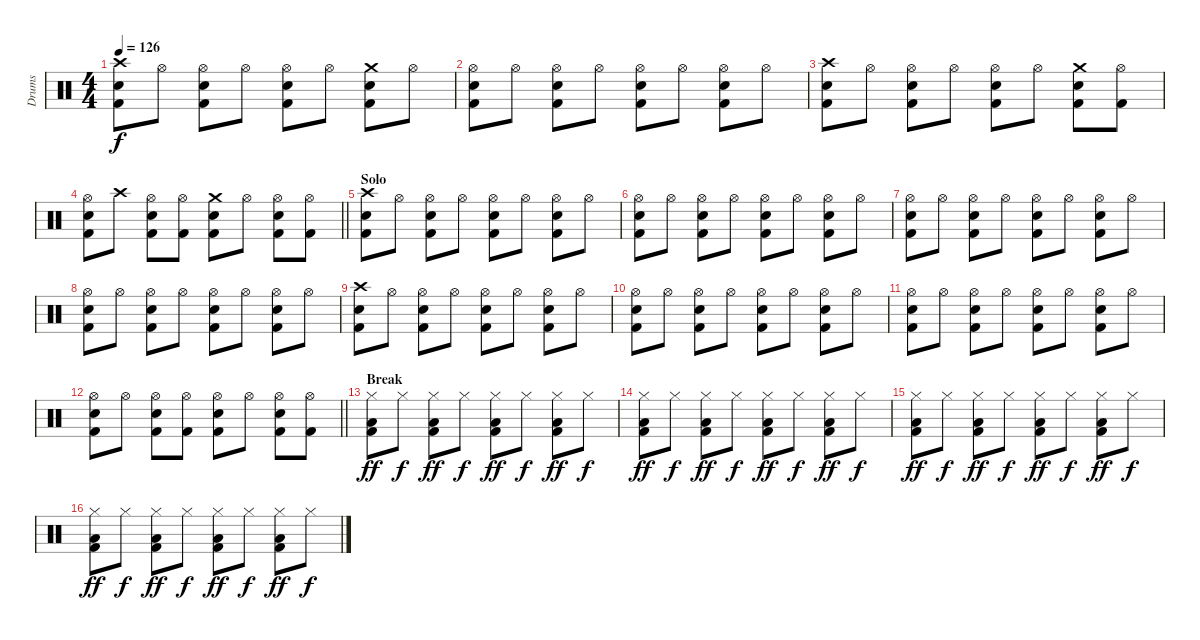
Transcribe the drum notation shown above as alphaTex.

\track ("Drums" "Drums") {instrument percussion}
\staff {score}
\articulation defaults
\ts (4 4)
\tempo 126
\clef neutral
\ks c
("Crash high (hit)" "Kick (hit) 2" "Electric Snare (hit)").8{dy f} "Hi-Hat (open)".8 ("Hi-Hat (open)" "Kick (hit) 2" "Electric Snare (hit)").8 "Hi-Hat (open)".8 ("Hi-Hat (open)" "Kick (hit) 2" "Electric Snare (hit)").8 "Hi-Hat (open)".8 ("Crash medium (hit)" "Kick (hit) 2" "Electric Snare (hit)").8 "Hi-Hat (open)".8 |
("Hi-Hat (open)" "Kick (hit) 2" "Electric Snare (hit)").8 "Hi-Hat (open)".8 ("Hi-Hat (open)" "Kick (hit) 2" "Electric Snare (hit)").8 "Hi-Hat (open)".8 ("Hi-Hat (open)" "Kick (hit) 2" "Electric Snare (hit)").8 "Hi-Hat (open)".8 ("Hi-Hat (open)" "Kick (hit) 2" "Electric Snare (hit)").8 "Hi-Hat (open)".8 |
("Crash high (hit)" "Kick (hit) 2" "Electric Snare (hit)").8 "Hi-Hat (open)".8 ("Hi-Hat (open)" "Kick (hit) 2" "Electric Snare (hit)").8 "Hi-Hat (open)".8 ("Hi-Hat (open)" "Kick (hit) 2" "Electric Snare (hit)").8 "Hi-Hat (open)".8 ("Crash medium (hit)" "Kick (hit) 2" "Electric Snare (hit)").8 ("Hi-Hat (open)" "Kick (hit) 2").8 |
\barLineRight lightlight
("Hi-Hat (open)" "Kick (hit) 2" "Electric Snare (hit)").8 "Crash high (hit)".8 ("Hi-Hat (open)" "Kick (hit) 2" "Electric Snare (hit)").8 ("Hi-Hat (open)" "Kick (hit) 2").8 ("Crash medium (hit)" "Kick (hit) 2" "Electric Snare (hit)").8 "Hi-Hat (open)".8 ("Hi-Hat (open)" "Kick (hit) 2" "Electric Snare (hit)").8 ("Hi-Hat (open)" "Kick (hit) 2").8 |
\section ("" "Solo")
("Crash high (hit)" "Kick (hit) 2" "Electric Snare (hit)").8 "Hi-Hat (open)".8 ("Hi-Hat (open)" "Kick (hit) 2" "Electric Snare (hit)").8 "Hi-Hat (open)".8 ("Hi-Hat (open)" "Kick (hit) 2" "Electric Snare (hit)").8 "Hi-Hat (open)".8 ("Hi-Hat (open)" "Kick (hit) 2" "Electric Snare (hit)").8 "Hi-Hat (open)".8 |
("Hi-Hat (open)" "Kick (hit) 2" "Electric Snare (hit)").8 "Hi-Hat (open)".8 ("Hi-Hat (open)" "Kick (hit) 2" "Electric Snare (hit)").8 "Hi-Hat (open)".8 ("Hi-Hat (open)" "Kick (hit) 2" "Electric Snare (hit)").8 "Hi-Hat (open)".8 ("Hi-Hat (open)" "Kick (hit) 2" "Electric Snare (hit)").8 "Hi-Hat (open)".8 |
("Hi-Hat (open)" "Kick (hit) 2" "Electric Snare (hit)").8 "Hi-Hat (open)".8 ("Hi-Hat (open)" "Kick (hit) 2" "Electric Snare (hit)").8 "Hi-Hat (open)".8 ("Hi-Hat (open)" "Kick (hit) 2" "Electric Snare (hit)").8 "Hi-Hat (open)".8 ("Hi-Hat (open)" "Kick (hit) 2" "Electric Snare (hit)").8 "Hi-Hat (open)".8 |
("Hi-Hat (open)" "Kick (hit) 2" "Electric Snare (hit)").8 "Hi-Hat (open)".8 ("Hi-Hat (open)" "Kick (hit) 2" "Electric Snare (hit)").8 "Hi-Hat (open)".8 ("Hi-Hat (open)" "Kick (hit) 2" "Electric Snare (hit)").8 "Hi-Hat (open)".8 ("Hi-Hat (open)" "Kick (hit) 2" "Electric Snare (hit)").8 "Hi-Hat (open)".8 |
("Crash high (hit)" "Kick (hit) 2" "Electric Snare (hit)").8 "Hi-Hat (open)".8 ("Hi-Hat (open)" "Kick (hit) 2" "Electric Snare (hit)").8 "Hi-Hat (open)".8 ("Hi-Hat (open)" "Kick (hit) 2" "Electric Snare (hit)").8 "Hi-Hat (open)".8 ("Hi-Hat (open)" "Kick (hit) 2" "Electric Snare (hit)").8 "Hi-Hat (open)".8 |
("Hi-Hat (open)" "Kick (hit) 2" "Electric Snare (hit)").8 "Hi-Hat (open)".8 ("Hi-Hat (open)" "Kick (hit) 2" "Electric Snare (hit)").8 "Hi-Hat (open)".8 ("Hi-Hat (open)" "Kick (hit) 2" "Electric Snare (hit)").8 "Hi-Hat (open)".8 ("Hi-Hat (open)" "Kick (hit) 2" "Electric Snare (hit)").8 "Hi-Hat (open)".8 |
("Hi-Hat (open)" "Kick (hit) 2" "Electric Snare (hit)").8 "Hi-Hat (open)".8 ("Hi-Hat (open)" "Kick (hit) 2" "Electric Snare (hit)").8 "Hi-Hat (open)".8 ("Hi-Hat (open)" "Kick (hit) 2" "Electric Snare (hit)").8 "Hi-Hat (open)".8 ("Hi-Hat (open)" "Kick (hit) 2" "Electric Snare (hit)").8 "Hi-Hat (open)".8 |
\barLineRight lightlight
("Hi-Hat (open)" "Kick (hit) 2" "Electric Snare (hit)").8 "Hi-Hat (open)".8 ("Hi-Hat (open)" "Kick (hit) 2" "Electric Snare (hit)").8 ("Hi-Hat (open)" "Kick (hit) 2").8 ("Hi-Hat (open)" "Kick (hit) 2" "Electric Snare (hit)").8 "Hi-Hat (open)".8 ("Hi-Hat (open)" "Kick (hit) 2" "Electric Snare (hit)").8 ("Hi-Hat (open)" "Kick (hit) 2").8 |
\section ("" "Break")
("Hi-Hat (closed)" "Kick (hit) 2" "Low Tom (hit)").8{dy ff} "Hi-Hat (closed)".8{dy f} ("Hi-Hat (closed)" "Kick (hit) 2" "Low Tom (hit)").8{dy ff} "Hi-Hat (closed)".8{dy f} ("Hi-Hat (closed)" "Kick (hit) 2" "Low Tom (hit)").8{dy ff} "Hi-Hat (closed)".8{dy f} ("Hi-Hat (closed)" "Kick (hit) 2" "Low Tom (hit)").8{dy ff} "Hi-Hat (closed)".8{dy f} |
("Hi-Hat (closed)" "Kick (hit) 2" "Low Tom (hit)").8{dy ff} "Hi-Hat (closed)".8{dy f} ("Hi-Hat (closed)" "Kick (hit) 2" "Low Tom (hit)").8{dy ff} "Hi-Hat (closed)".8{dy f} ("Hi-Hat (closed)" "Kick (hit) 2" "Low Tom (hit)").8{dy ff} "Hi-Hat (closed)".8{dy f} ("Hi-Hat (closed)" "Kick (hit) 2" "Low Tom (hit)").8{dy ff} "Hi-Hat (closed)".8{dy f} |
("Hi-Hat (closed)" "Kick (hit) 2" "Low Tom (hit)").8{dy ff} "Hi-Hat (closed)".8{dy f} ("Hi-Hat (closed)" "Kick (hit) 2" "Low Tom (hit)").8{dy ff} "Hi-Hat (closed)".8{dy f} ("Hi-Hat (closed)" "Kick (hit) 2" "Low Tom (hit)").8{dy ff} "Hi-Hat (closed)".8{dy f} ("Hi-Hat (closed)" "Kick (hit) 2" "Low Tom (hit)").8{dy ff} "Hi-Hat (closed)".8{dy f} |
("Hi-Hat (closed)" "Kick (hit) 2" "Low Tom (hit)").8{dy ff} "Hi-Hat (closed)".8{dy f} ("Hi-Hat (closed)" "Kick (hit) 2" "Low Tom (hit)").8{dy ff} "Hi-Hat (closed)".8{dy f} ("Hi-Hat (closed)" "Kick (hit) 2" "Low Tom (hit)").8{dy ff} "Hi-Hat (closed)".8{dy f} ("Hi-Hat (closed)" "Kick (hit) 2" "Low Tom (hit)").8{dy ff} "Hi-Hat (closed)".8{dy f}
